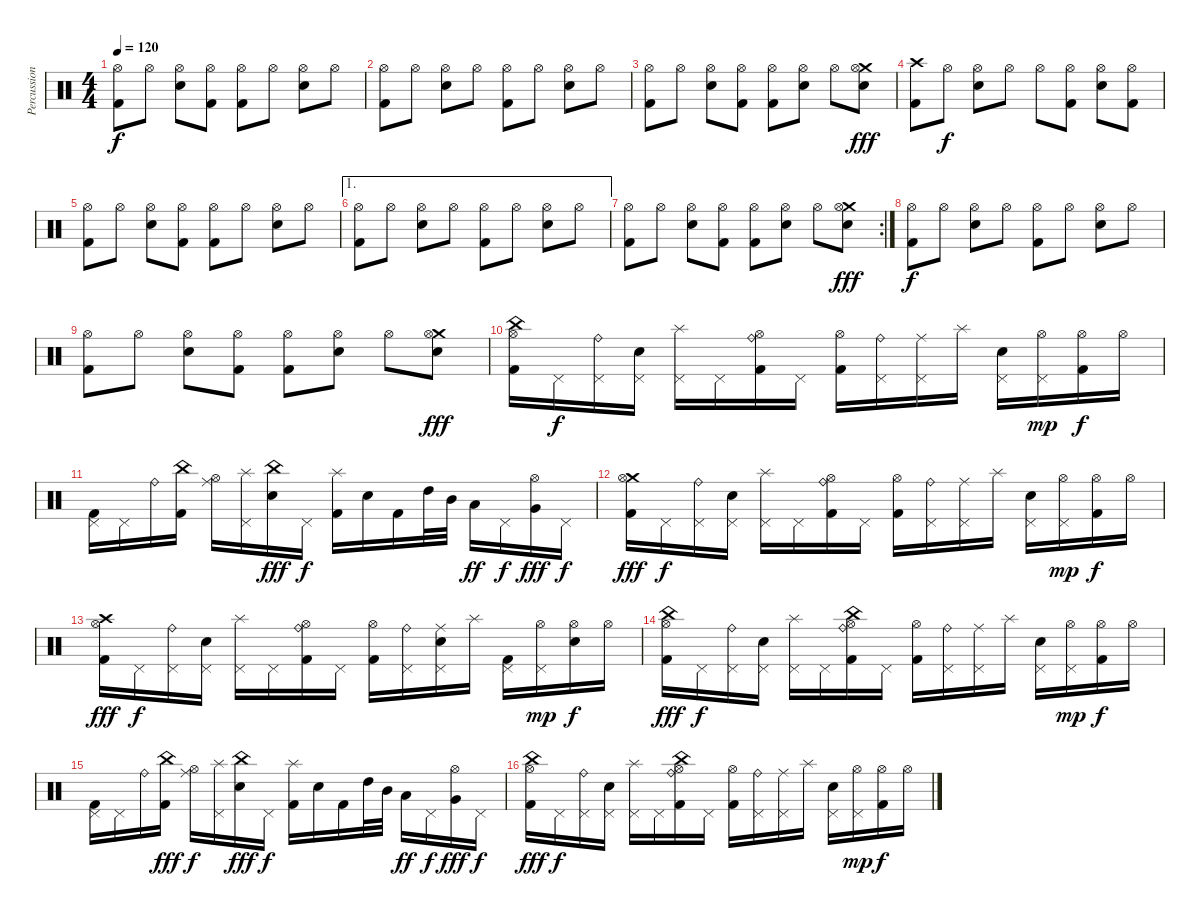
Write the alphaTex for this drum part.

\track ("Percussion" "Percussion") {instrument percussion}
\staff {score}
\articulation defaults
\ts (4 4)
\tempo 120
\clef neutral
\ks c
("Hi-Hat (open)" "Kick (hit) 2").8{dy f} "Hi-Hat (open)".8 ("Hi-Hat (open)" "Electric Snare (hit)").8 ("Hi-Hat (open)" "Kick (hit) 2").8 ("Hi-Hat (open)" "Kick (hit) 2").8 "Hi-Hat (open)".8 ("Hi-Hat (open)" "Electric Snare (hit)").8 "Hi-Hat (open)".8 |
("Hi-Hat (open)" "Kick (hit) 2").8 "Hi-Hat (open)".8 ("Hi-Hat (open)" "Electric Snare (hit)").8 "Hi-Hat (open)".8 ("Hi-Hat (open)" "Kick (hit) 2").8 "Hi-Hat (open)".8 ("Hi-Hat (open)" "Electric Snare (hit)").8 "Hi-Hat (open)".8 |
("Hi-Hat (open)" "Kick (hit) 2").8 "Hi-Hat (open)".8 ("Hi-Hat (open)" "Electric Snare (hit)").8 ("Hi-Hat (open)" "Kick (hit) 2").8 ("Hi-Hat (open)" "Kick (hit) 2").8 ("Hi-Hat (open)" "Electric Snare (hit)").8 "Hi-Hat (open)".8 ("Crash medium (hit)" "Hi-Hat (open)" "Electric Snare (hit)").8{dy fff} |
("Crash high (hit)" "Kick (hit) 2").8 "Hi-Hat (open)".8{dy f} ("Hi-Hat (open)" "Electric Snare (hit)").8 "Hi-Hat (open)".8 "Hi-Hat (open)".8 ("Hi-Hat (open)" "Kick (hit) 2").8 ("Hi-Hat (open)" "Electric Snare (hit)").8 ("Hi-Hat (open)" "Kick (hit) 2").8 |
("Hi-Hat (open)" "Kick (hit) 2").8 "Hi-Hat (open)".8 ("Hi-Hat (open)" "Electric Snare (hit)").8 ("Hi-Hat (open)" "Kick (hit) 2").8 ("Hi-Hat (open)" "Kick (hit) 2").8 "Hi-Hat (open)".8 ("Hi-Hat (open)" "Electric Snare (hit)").8 "Hi-Hat (open)".8 |
\ae 1
("Hi-Hat (open)" "Kick (hit) 2").8 "Hi-Hat (open)".8 ("Hi-Hat (open)" "Electric Snare (hit)").8 "Hi-Hat (open)".8 ("Hi-Hat (open)" "Kick (hit) 2").8 "Hi-Hat (open)".8 ("Hi-Hat (open)" "Electric Snare (hit)").8 "Hi-Hat (open)".8 |
\rc 2
("Hi-Hat (open)" "Kick (hit) 2").8 "Hi-Hat (open)".8 ("Hi-Hat (open)" "Electric Snare (hit)").8 ("Hi-Hat (open)" "Kick (hit) 2").8 ("Hi-Hat (open)" "Kick (hit) 2").8 ("Hi-Hat (open)" "Electric Snare (hit)").8 "Hi-Hat (open)".8 ("Crash medium (hit)" "Hi-Hat (open)" "Electric Snare (hit)").8{dy fff} |
("Hi-Hat (open)" "Kick (hit) 2").8{dy f} "Hi-Hat (open)".8 ("Hi-Hat (open)" "Electric Snare (hit)").8 "Hi-Hat (open)".8 ("Hi-Hat (open)" "Kick (hit) 2").8 "Hi-Hat (open)".8 ("Hi-Hat (open)" "Electric Snare (hit)").8 "Hi-Hat (open)".8 |
("Hi-Hat (open)" "Kick (hit) 2").8 "Hi-Hat (open)".8 ("Hi-Hat (open)" "Electric Snare (hit)").8 ("Hi-Hat (open)" "Kick (hit) 2").8 ("Hi-Hat (open)" "Kick (hit) 2").8 ("Hi-Hat (open)" "Electric Snare (hit)").8 "Hi-Hat (open)".8 ("Crash medium (hit)" "Hi-Hat (open)" "Electric Snare (hit)").8{dy fff} |
("China (hit)" "Hi-Hat (open)" "Kick (hit) 2").16 "Pedal Hi-Hat (hit)".16{dy f} ("Ride (bell)" "Pedal Hi-Hat (hit)").16 ("Pedal Hi-Hat (hit)" "Electric Snare (hit)").16 ("Splash (hit)" "Pedal Hi-Hat (hit)").16 "Pedal Hi-Hat (hit)".16 ("Ride (bell)" "Hi-Hat (open)" "Kick (hit) 2").16 "Pedal Hi-Hat (hit)".16 ("Hi-Hat (open)" "Kick (hit) 2").16 ("Pedal Hi-Hat (hit)" "Ride (bell)").16 ("Pedal Hi-Hat (hit)" "Ride (middle)").16 "Splash (hit)".16 ("Pedal Hi-Hat (hit)" "Electric Snare (hit)").16 ("Pedal Hi-Hat (hit)" "Hi-Hat (open)").16{dy mp} ("Hi-Hat (open)" "Kick (hit) 2").16{dy f} "Hi-Hat (open)".16 |
("Pedal Hi-Hat (hit)" "Kick (hit) 2").16 "Pedal Hi-Hat (hit)".16 "Ride (bell)".16 ("China (hit)" "Kick (hit) 2").16 ("Ride (middle)" "Hi-Hat (open)").16 ("Splash (hit)" "Pedal Hi-Hat (hit)").16 ("China (hit)" "Electric Snare (hit)").16{dy fff} "Pedal Hi-Hat (hit)".16{dy f} ("Splash (hit)" "Kick (hit) 2").16 "Electric Snare (hit)".16 "Kick (hit) 2".16 "High Tom (hit)".32 "Mid Tom (hit)".32 "Low Tom (hit)".16{dy ff} "Pedal Hi-Hat (hit)".16{dy f} ("Hi-Hat (open)" "Very Low Tom (hit)").16{dy fff} "Pedal Hi-Hat (hit)".16{dy f} |
("Crash medium (hit)" "Hi-Hat (open)" "Kick (hit) 2").16{dy fff} "Pedal Hi-Hat (hit)".16{dy f} ("Ride (bell)" "Pedal Hi-Hat (hit)").16 ("Pedal Hi-Hat (hit)" "Electric Snare (hit)").16 ("Splash (hit)" "Pedal Hi-Hat (hit)").16 "Pedal Hi-Hat (hit)".16 ("Ride (bell)" "Hi-Hat (open)" "Kick (hit) 2").16 "Pedal Hi-Hat (hit)".16 ("Hi-Hat (open)" "Kick (hit) 2").16 ("Pedal Hi-Hat (hit)" "Ride (bell)").16 ("Pedal Hi-Hat (hit)" "Ride (middle)").16 "Splash (hit)".16 ("Pedal Hi-Hat (hit)" "Electric Snare (hit)").16 ("Pedal Hi-Hat (hit)" "Hi-Hat (open)").16{dy mp} ("Hi-Hat (open)" "Kick (hit) 2").16{dy f} "Hi-Hat (open)".16 |
("Crash high (hit)" "Hi-Hat (open)" "Kick (hit) 2").16{dy fff} "Pedal Hi-Hat (hit)".16{dy f} ("Ride (bell)" "Pedal Hi-Hat (hit)").16 ("Pedal Hi-Hat (hit)" "Electric Snare (hit)").16 ("Splash (hit)" "Pedal Hi-Hat (hit)").16 "Pedal Hi-Hat (hit)".16 ("Ride (bell)" "Hi-Hat (open)" "Kick (hit) 2").16 "Pedal Hi-Hat (hit)".16 ("Hi-Hat (open)" "Kick (hit) 2").16 ("Pedal Hi-Hat (hit)" "Ride (bell)").16 ("Pedal Hi-Hat (hit)" "Ride (middle)" "Electric Snare (hit)").16 "Splash (hit)".16 ("Pedal Hi-Hat (hit)" "Kick (hit) 2").16 ("Pedal Hi-Hat (hit)" "Hi-Hat (open)").16{dy mp} ("Hi-Hat (open)" "Electric Snare (hit)").16{dy f} "Hi-Hat (open)".16 |
("China (hit)" "Hi-Hat (open)" "Kick (hit) 2").16{dy fff} "Pedal Hi-Hat (hit)".16{dy f} ("Ride (bell)" "Pedal Hi-Hat (hit)").16 ("Pedal Hi-Hat (hit)" "Electric Snare (hit)").16 ("Splash (hit)" "Pedal Hi-Hat (hit)").16 "Pedal Hi-Hat (hit)".16 ("China (hit)" "Ride (bell)" "Hi-Hat (open)" "Kick (hit) 2").16 "Pedal Hi-Hat (hit)".16 ("Hi-Hat (open)" "Kick (hit) 2").16 ("Pedal Hi-Hat (hit)" "Ride (bell)").16 ("Pedal Hi-Hat (hit)" "Ride (middle)").16 "Splash (hit)".16 ("Pedal Hi-Hat (hit)" "Electric Snare (hit)").16 ("Pedal Hi-Hat (hit)" "Hi-Hat (open)").16{dy mp} ("Hi-Hat (open)" "Kick (hit) 2").16{dy f} "Hi-Hat (open)".16 |
("Pedal Hi-Hat (hit)" "Kick (hit) 2").16 "Pedal Hi-Hat (hit)".16 "Ride (bell)".16 ("China (hit)" "Kick (hit) 2").16{dy fff} ("Ride (middle)" "Hi-Hat (open)").16{dy f} ("Splash (hit)" "Pedal Hi-Hat (hit)").16 ("China (hit)" "Electric Snare (hit)").16{dy fff} "Pedal Hi-Hat (hit)".16{dy f} ("Splash (hit)" "Kick (hit) 2").16 "Electric Snare (hit)".16 "Kick (hit) 2".16 "High Tom (hit)".32 "Mid Tom (hit)".32 "Low Tom (hit)".16{dy ff} "Pedal Hi-Hat (hit)".16{dy f} ("Hi-Hat (open)" "Very Low Tom (hit)").16{dy fff} "Pedal Hi-Hat (hit)".16{dy f} |
("China (hit)" "Hi-Hat (open)" "Kick (hit) 2").16{dy fff} "Pedal Hi-Hat (hit)".16{dy f} ("Ride (bell)" "Pedal Hi-Hat (hit)").16 ("Pedal Hi-Hat (hit)" "Electric Snare (hit)").16 ("Splash (hit)" "Pedal Hi-Hat (hit)").16 "Pedal Hi-Hat (hit)".16 ("China (hit)" "Ride (bell)" "Hi-Hat (open)" "Kick (hit) 2").16 "Pedal Hi-Hat (hit)".16 ("Hi-Hat (open)" "Kick (hit) 2").16 ("Pedal Hi-Hat (hit)" "Ride (bell)").16 ("Pedal Hi-Hat (hit)" "Ride (middle)").16 "Splash (hit)".16 ("Pedal Hi-Hat (hit)" "Electric Snare (hit)").16 ("Pedal Hi-Hat (hit)" "Hi-Hat (open)").16{dy mp} ("Hi-Hat (open)" "Kick (hit) 2").16{dy f} "Hi-Hat (open)".16
